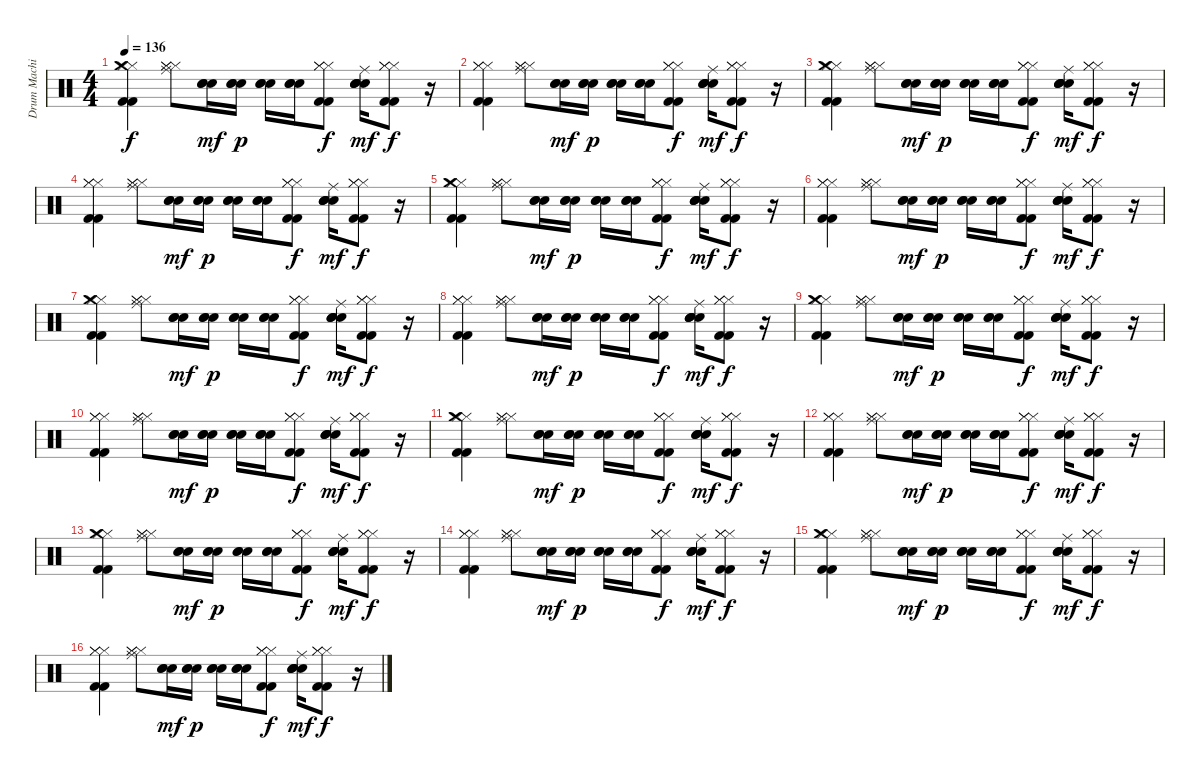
\track ("Drum Machine" "Drum Machi") {instrument percussion}
\staff {score}
\articulation defaults
\ts (4 4)
\tempo 136
\clef neutral
\ks c
("Hi-Hat (closed)" "Kick (hit) 2" "Crash medium (hit)" "Kick (hit) 2" "Hi-Hat (closed)").4{dy f} ("Ride (middle)" "Hi-Hat (closed)" "Hi-Hat (closed)" "Hi-Hat (closed)").8 ("Electric Snare (hit)" "Electric Snare (hit)" "Electric Snare (hit)").16{dy mf} ("Snare (hit) 2" "Snare (hit) 2" "Snare (hit) 2").16{dy p} ("Electric Snare (hit)" "Electric Snare (hit)" "Electric Snare (hit)").16 ("Snare (hit) 2" "Snare (hit) 2" "Snare (hit) 2").16 ("Hi-Hat (closed)" "Kick (hit) 2" "Hi-Hat (closed)" "Kick (hit) 2" "Hi-Hat (closed)").8{dy f} ("Ride (middle)" "Electric Snare (hit)" "Snare (hit) 2" "Electric Snare (hit)" "Snare (hit) 2").16{dy mf} ("Hi-Hat (closed)" "Kick (hit) 2" "Hi-Hat (closed)" "Kick (hit) 2" "Hi-Hat (closed)").8{dy f} r.16 |
("Hi-Hat (closed)" "Kick (hit) 2" "Hi-Hat (closed)" "Kick (hit) 2" "Hi-Hat (closed)").4 ("Ride (middle)" "Hi-Hat (closed)" "Hi-Hat (closed)" "Hi-Hat (closed)").8 ("Electric Snare (hit)" "Electric Snare (hit)" "Electric Snare (hit)").16{dy mf} ("Snare (hit) 2" "Snare (hit) 2" "Snare (hit) 2").16{dy p} ("Electric Snare (hit)" "Electric Snare (hit)" "Electric Snare (hit)").16 ("Snare (hit) 2" "Snare (hit) 2" "Snare (hit) 2").16 ("Hi-Hat (closed)" "Kick (hit) 2" "Hi-Hat (closed)" "Kick (hit) 2" "Hi-Hat (closed)").8{dy f} ("Ride (middle)" "Electric Snare (hit)" "Snare (hit) 2" "Electric Snare (hit)" "Snare (hit) 2").16{dy mf} ("Hi-Hat (closed)" "Kick (hit) 2" "Hi-Hat (closed)" "Kick (hit) 2" "Hi-Hat (closed)").8{dy f} r.16 |
("Hi-Hat (closed)" "Kick (hit) 2" "Crash medium (hit)" "Kick (hit) 2" "Hi-Hat (closed)").4 ("Ride (middle)" "Hi-Hat (closed)" "Hi-Hat (closed)" "Hi-Hat (closed)").8 ("Electric Snare (hit)" "Electric Snare (hit)" "Electric Snare (hit)").16{dy mf} ("Snare (hit) 2" "Snare (hit) 2" "Snare (hit) 2").16{dy p} ("Electric Snare (hit)" "Electric Snare (hit)" "Electric Snare (hit)").16 ("Snare (hit) 2" "Snare (hit) 2" "Snare (hit) 2").16 ("Hi-Hat (closed)" "Kick (hit) 2" "Hi-Hat (closed)" "Kick (hit) 2" "Hi-Hat (closed)").8{dy f} ("Ride (middle)" "Electric Snare (hit)" "Snare (hit) 2" "Electric Snare (hit)" "Snare (hit) 2").16{dy mf} ("Hi-Hat (closed)" "Kick (hit) 2" "Hi-Hat (closed)" "Kick (hit) 2" "Hi-Hat (closed)").8{dy f} r.16 |
("Hi-Hat (closed)" "Kick (hit) 2" "Hi-Hat (closed)" "Kick (hit) 2" "Hi-Hat (closed)").4 ("Ride (middle)" "Hi-Hat (closed)" "Hi-Hat (closed)" "Hi-Hat (closed)").8 ("Electric Snare (hit)" "Electric Snare (hit)" "Electric Snare (hit)").16{dy mf} ("Snare (hit) 2" "Snare (hit) 2" "Snare (hit) 2").16{dy p} ("Electric Snare (hit)" "Electric Snare (hit)" "Electric Snare (hit)").16 ("Snare (hit) 2" "Snare (hit) 2" "Snare (hit) 2").16 ("Hi-Hat (closed)" "Kick (hit) 2" "Hi-Hat (closed)" "Kick (hit) 2" "Hi-Hat (closed)").8{dy f} ("Ride (middle)" "Electric Snare (hit)" "Snare (hit) 2" "Electric Snare (hit)" "Snare (hit) 2").16{dy mf} ("Hi-Hat (closed)" "Kick (hit) 2" "Hi-Hat (closed)" "Kick (hit) 2" "Hi-Hat (closed)").8{dy f} r.16 |
("Hi-Hat (closed)" "Kick (hit) 2" "Crash medium (hit)" "Kick (hit) 2" "Hi-Hat (closed)").4 ("Ride (middle)" "Hi-Hat (closed)" "Hi-Hat (closed)" "Hi-Hat (closed)").8 ("Electric Snare (hit)" "Electric Snare (hit)" "Electric Snare (hit)").16{dy mf} ("Snare (hit) 2" "Snare (hit) 2" "Snare (hit) 2").16{dy p} ("Electric Snare (hit)" "Electric Snare (hit)" "Electric Snare (hit)").16 ("Snare (hit) 2" "Snare (hit) 2" "Snare (hit) 2").16 ("Hi-Hat (closed)" "Kick (hit) 2" "Hi-Hat (closed)" "Kick (hit) 2" "Hi-Hat (closed)").8{dy f} ("Ride (middle)" "Electric Snare (hit)" "Snare (hit) 2" "Electric Snare (hit)" "Snare (hit) 2").16{dy mf} ("Hi-Hat (closed)" "Kick (hit) 2" "Hi-Hat (closed)" "Kick (hit) 2" "Hi-Hat (closed)").8{dy f} r.16 |
("Hi-Hat (closed)" "Kick (hit) 2" "Hi-Hat (closed)" "Kick (hit) 2" "Hi-Hat (closed)").4 ("Ride (middle)" "Hi-Hat (closed)" "Hi-Hat (closed)" "Hi-Hat (closed)").8 ("Electric Snare (hit)" "Electric Snare (hit)" "Electric Snare (hit)").16{dy mf} ("Snare (hit) 2" "Snare (hit) 2" "Snare (hit) 2").16{dy p} ("Electric Snare (hit)" "Electric Snare (hit)" "Electric Snare (hit)").16 ("Snare (hit) 2" "Snare (hit) 2" "Snare (hit) 2").16 ("Hi-Hat (closed)" "Kick (hit) 2" "Hi-Hat (closed)" "Kick (hit) 2" "Hi-Hat (closed)").8{dy f} ("Ride (middle)" "Electric Snare (hit)" "Snare (hit) 2" "Electric Snare (hit)" "Snare (hit) 2").16{dy mf} ("Hi-Hat (closed)" "Kick (hit) 2" "Hi-Hat (closed)" "Kick (hit) 2" "Hi-Hat (closed)").8{dy f} r.16 |
("Hi-Hat (closed)" "Kick (hit) 2" "Crash medium (hit)" "Kick (hit) 2" "Hi-Hat (closed)").4 ("Ride (middle)" "Hi-Hat (closed)" "Hi-Hat (closed)" "Hi-Hat (closed)").8 ("Electric Snare (hit)" "Electric Snare (hit)" "Electric Snare (hit)").16{dy mf} ("Snare (hit) 2" "Snare (hit) 2" "Snare (hit) 2").16{dy p} ("Electric Snare (hit)" "Electric Snare (hit)" "Electric Snare (hit)").16 ("Snare (hit) 2" "Snare (hit) 2" "Snare (hit) 2").16 ("Hi-Hat (closed)" "Kick (hit) 2" "Hi-Hat (closed)" "Kick (hit) 2" "Hi-Hat (closed)").8{dy f} ("Ride (middle)" "Electric Snare (hit)" "Snare (hit) 2" "Electric Snare (hit)" "Snare (hit) 2").16{dy mf} ("Hi-Hat (closed)" "Kick (hit) 2" "Hi-Hat (closed)" "Kick (hit) 2" "Hi-Hat (closed)").8{dy f} r.16 |
("Hi-Hat (closed)" "Kick (hit) 2" "Hi-Hat (closed)" "Kick (hit) 2" "Hi-Hat (closed)").4 ("Ride (middle)" "Hi-Hat (closed)" "Hi-Hat (closed)" "Hi-Hat (closed)").8 ("Electric Snare (hit)" "Electric Snare (hit)" "Electric Snare (hit)").16{dy mf} ("Snare (hit) 2" "Snare (hit) 2" "Snare (hit) 2").16{dy p} ("Electric Snare (hit)" "Electric Snare (hit)" "Electric Snare (hit)").16 ("Snare (hit) 2" "Snare (hit) 2" "Snare (hit) 2").16 ("Hi-Hat (closed)" "Kick (hit) 2" "Hi-Hat (closed)" "Kick (hit) 2" "Hi-Hat (closed)").8{dy f} ("Ride (middle)" "Electric Snare (hit)" "Snare (hit) 2" "Electric Snare (hit)" "Snare (hit) 2").16{dy mf} ("Hi-Hat (closed)" "Kick (hit) 2" "Hi-Hat (closed)" "Kick (hit) 2" "Hi-Hat (closed)").8{dy f} r.16 |
("Hi-Hat (closed)" "Kick (hit) 2" "Crash medium (hit)" "Kick (hit) 2" "Hi-Hat (closed)").4 ("Ride (middle)" "Hi-Hat (closed)" "Hi-Hat (closed)" "Hi-Hat (closed)").8 ("Electric Snare (hit)" "Electric Snare (hit)" "Electric Snare (hit)").16{dy mf} ("Snare (hit) 2" "Snare (hit) 2" "Snare (hit) 2").16{dy p} ("Electric Snare (hit)" "Electric Snare (hit)" "Electric Snare (hit)").16 ("Snare (hit) 2" "Snare (hit) 2" "Snare (hit) 2").16 ("Hi-Hat (closed)" "Kick (hit) 2" "Hi-Hat (closed)" "Kick (hit) 2" "Hi-Hat (closed)").8{dy f} ("Ride (middle)" "Electric Snare (hit)" "Snare (hit) 2" "Electric Snare (hit)" "Snare (hit) 2").16{dy mf} ("Hi-Hat (closed)" "Kick (hit) 2" "Hi-Hat (closed)" "Kick (hit) 2" "Hi-Hat (closed)").8{dy f} r.16 |
("Hi-Hat (closed)" "Kick (hit) 2" "Hi-Hat (closed)" "Kick (hit) 2" "Hi-Hat (closed)").4 ("Ride (middle)" "Hi-Hat (closed)" "Hi-Hat (closed)" "Hi-Hat (closed)").8 ("Electric Snare (hit)" "Electric Snare (hit)" "Electric Snare (hit)").16{dy mf} ("Snare (hit) 2" "Snare (hit) 2" "Snare (hit) 2").16{dy p} ("Electric Snare (hit)" "Electric Snare (hit)" "Electric Snare (hit)").16 ("Snare (hit) 2" "Snare (hit) 2" "Snare (hit) 2").16 ("Hi-Hat (closed)" "Kick (hit) 2" "Hi-Hat (closed)" "Kick (hit) 2" "Hi-Hat (closed)").8{dy f} ("Ride (middle)" "Electric Snare (hit)" "Snare (hit) 2" "Electric Snare (hit)" "Snare (hit) 2").16{dy mf} ("Hi-Hat (closed)" "Kick (hit) 2" "Hi-Hat (closed)" "Kick (hit) 2" "Hi-Hat (closed)").8{dy f} r.16 |
("Hi-Hat (closed)" "Kick (hit) 2" "Crash medium (hit)" "Kick (hit) 2" "Hi-Hat (closed)").4 ("Ride (middle)" "Hi-Hat (closed)" "Hi-Hat (closed)" "Hi-Hat (closed)").8 ("Electric Snare (hit)" "Electric Snare (hit)" "Electric Snare (hit)").16{dy mf} ("Snare (hit) 2" "Snare (hit) 2" "Snare (hit) 2").16{dy p} ("Electric Snare (hit)" "Electric Snare (hit)" "Electric Snare (hit)").16 ("Snare (hit) 2" "Snare (hit) 2" "Snare (hit) 2").16 ("Hi-Hat (closed)" "Kick (hit) 2" "Hi-Hat (closed)" "Kick (hit) 2" "Hi-Hat (closed)").8{dy f} ("Ride (middle)" "Electric Snare (hit)" "Snare (hit) 2" "Electric Snare (hit)" "Snare (hit) 2").16{dy mf} ("Hi-Hat (closed)" "Kick (hit) 2" "Hi-Hat (closed)" "Kick (hit) 2" "Hi-Hat (closed)").8{dy f} r.16 |
("Hi-Hat (closed)" "Kick (hit) 2" "Hi-Hat (closed)" "Kick (hit) 2" "Hi-Hat (closed)").4 ("Ride (middle)" "Hi-Hat (closed)" "Hi-Hat (closed)" "Hi-Hat (closed)").8 ("Electric Snare (hit)" "Electric Snare (hit)" "Electric Snare (hit)").16{dy mf} ("Snare (hit) 2" "Snare (hit) 2" "Snare (hit) 2").16{dy p} ("Electric Snare (hit)" "Electric Snare (hit)" "Electric Snare (hit)").16 ("Snare (hit) 2" "Snare (hit) 2" "Snare (hit) 2").16 ("Hi-Hat (closed)" "Kick (hit) 2" "Hi-Hat (closed)" "Kick (hit) 2" "Hi-Hat (closed)").8{dy f} ("Ride (middle)" "Electric Snare (hit)" "Snare (hit) 2" "Electric Snare (hit)" "Snare (hit) 2").16{dy mf} ("Hi-Hat (closed)" "Kick (hit) 2" "Hi-Hat (closed)" "Kick (hit) 2" "Hi-Hat (closed)").8{dy f} r.16 |
("Hi-Hat (closed)" "Kick (hit) 2" "Crash medium (hit)" "Kick (hit) 2" "Hi-Hat (closed)").4 ("Ride (middle)" "Hi-Hat (closed)" "Hi-Hat (closed)" "Hi-Hat (closed)").8 ("Electric Snare (hit)" "Electric Snare (hit)" "Electric Snare (hit)").16{dy mf} ("Snare (hit) 2" "Snare (hit) 2" "Snare (hit) 2").16{dy p} ("Electric Snare (hit)" "Electric Snare (hit)" "Electric Snare (hit)").16 ("Snare (hit) 2" "Snare (hit) 2" "Snare (hit) 2").16 ("Hi-Hat (closed)" "Kick (hit) 2" "Hi-Hat (closed)" "Kick (hit) 2" "Hi-Hat (closed)").8{dy f} ("Ride (middle)" "Electric Snare (hit)" "Snare (hit) 2" "Electric Snare (hit)" "Snare (hit) 2").16{dy mf} ("Hi-Hat (closed)" "Kick (hit) 2" "Hi-Hat (closed)" "Kick (hit) 2" "Hi-Hat (closed)").8{dy f} r.16 |
("Hi-Hat (closed)" "Kick (hit) 2" "Hi-Hat (closed)" "Kick (hit) 2" "Hi-Hat (closed)").4 ("Ride (middle)" "Hi-Hat (closed)" "Hi-Hat (closed)" "Hi-Hat (closed)").8 ("Electric Snare (hit)" "Electric Snare (hit)" "Electric Snare (hit)").16{dy mf} ("Snare (hit) 2" "Snare (hit) 2" "Snare (hit) 2").16{dy p} ("Electric Snare (hit)" "Electric Snare (hit)" "Electric Snare (hit)").16 ("Snare (hit) 2" "Snare (hit) 2" "Snare (hit) 2").16 ("Hi-Hat (closed)" "Kick (hit) 2" "Hi-Hat (closed)" "Kick (hit) 2" "Hi-Hat (closed)").8{dy f} ("Ride (middle)" "Electric Snare (hit)" "Snare (hit) 2" "Electric Snare (hit)" "Snare (hit) 2").16{dy mf} ("Hi-Hat (closed)" "Kick (hit) 2" "Hi-Hat (closed)" "Kick (hit) 2" "Hi-Hat (closed)").8{dy f} r.16 |
("Hi-Hat (closed)" "Kick (hit) 2" "Crash medium (hit)" "Kick (hit) 2" "Hi-Hat (closed)").4 ("Ride (middle)" "Hi-Hat (closed)" "Hi-Hat (closed)" "Hi-Hat (closed)").8 ("Electric Snare (hit)" "Electric Snare (hit)" "Electric Snare (hit)").16{dy mf} ("Snare (hit) 2" "Snare (hit) 2" "Snare (hit) 2").16{dy p} ("Electric Snare (hit)" "Electric Snare (hit)" "Electric Snare (hit)").16 ("Snare (hit) 2" "Snare (hit) 2" "Snare (hit) 2").16 ("Hi-Hat (closed)" "Kick (hit) 2" "Hi-Hat (closed)" "Kick (hit) 2" "Hi-Hat (closed)").8{dy f} ("Ride (middle)" "Electric Snare (hit)" "Snare (hit) 2" "Electric Snare (hit)" "Snare (hit) 2").16{dy mf} ("Hi-Hat (closed)" "Kick (hit) 2" "Hi-Hat (closed)" "Kick (hit) 2" "Hi-Hat (closed)").8{dy f} r.16 |
("Hi-Hat (closed)" "Kick (hit) 2" "Hi-Hat (closed)" "Kick (hit) 2" "Hi-Hat (closed)").4 ("Ride (middle)" "Hi-Hat (closed)" "Hi-Hat (closed)" "Hi-Hat (closed)").8 ("Electric Snare (hit)" "Electric Snare (hit)" "Electric Snare (hit)").16{dy mf} ("Snare (hit) 2" "Snare (hit) 2" "Snare (hit) 2").16{dy p} ("Electric Snare (hit)" "Electric Snare (hit)" "Electric Snare (hit)").16 ("Snare (hit) 2" "Snare (hit) 2" "Snare (hit) 2").16 ("Hi-Hat (closed)" "Kick (hit) 2" "Hi-Hat (closed)" "Kick (hit) 2" "Hi-Hat (closed)").8{dy f} ("Ride (middle)" "Electric Snare (hit)" "Snare (hit) 2" "Electric Snare (hit)" "Snare (hit) 2").16{dy mf} ("Hi-Hat (closed)" "Kick (hit) 2" "Hi-Hat (closed)" "Kick (hit) 2" "Hi-Hat (closed)").8{dy f} r.16
